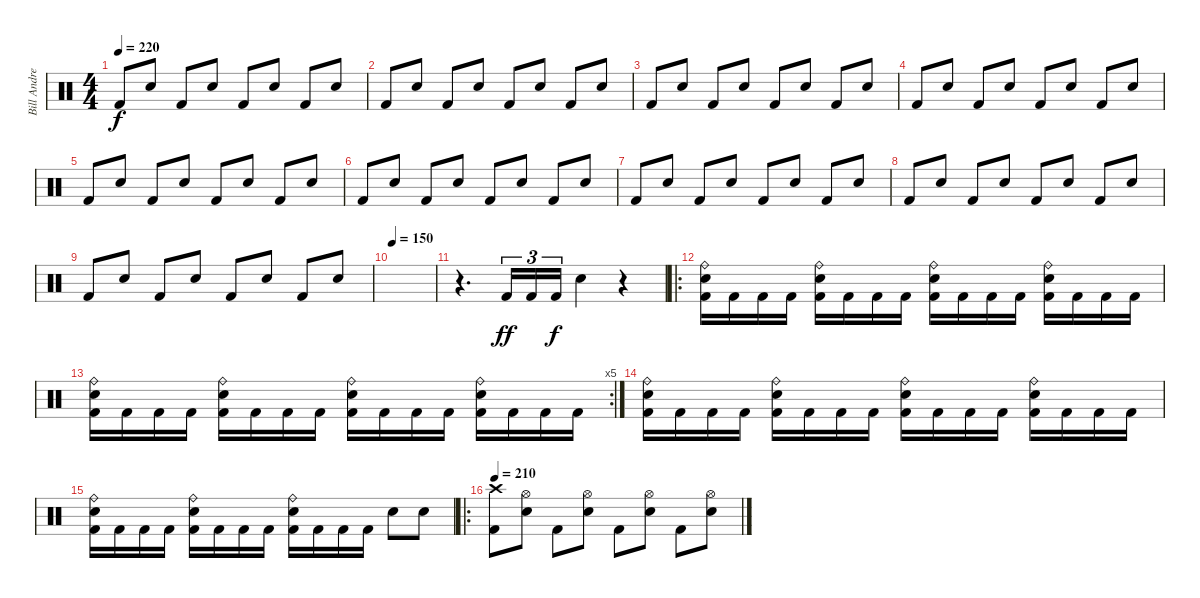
\track ("Bill Andrews" "Bill Andre") {instrument percussion}
\staff {score}
\articulation defaults
\ts (4 4)
\tempo 220
\clef neutral
\ks c "Kick (hit) 2".8{dy f} "Snare (hit) 2".8 "Kick (hit) 2".8 "Snare (hit) 2".8 "Kick (hit) 2".8 "Snare (hit) 2".8 "Kick (hit) 2".8 "Snare (hit) 2".8
|
"Kick (hit) 2".8 "Snare (hit) 2".8 "Kick (hit) 2".8 "Snare (hit) 2".8 "Kick (hit) 2".8 "Snare (hit) 2".8 "Kick (hit) 2".8 "Snare (hit) 2".8 |
"Kick (hit) 2".8 "Snare (hit) 2".8 "Kick (hit) 2".8 "Snare (hit) 2".8 "Kick (hit) 2".8 "Snare (hit) 2".8 "Kick (hit) 2".8 "Snare (hit) 2".8 |
"Kick (hit) 2".8 "Snare (hit) 2".8 "Kick (hit) 2".8 "Snare (hit) 2".8 "Kick (hit) 2".8 "Snare (hit) 2".8 "Kick (hit) 2".8 "Snare (hit) 2".8 |
"Kick (hit) 2".8 "Snare (hit) 2".8 "Kick (hit) 2".8 "Snare (hit) 2".8 "Kick (hit) 2".8 "Snare (hit) 2".8 "Kick (hit) 2".8 "Snare (hit) 2".8 |
"Kick (hit) 2".8 "Snare (hit) 2".8 "Kick (hit) 2".8 "Snare (hit) 2".8 "Kick (hit) 2".8 "Snare (hit) 2".8 "Kick (hit) 2".8 "Snare (hit) 2".8 |
"Kick (hit) 2".8 "Snare (hit) 2".8 "Kick (hit) 2".8 "Snare (hit) 2".8 "Kick (hit) 2".8 "Snare (hit) 2".8 "Kick (hit) 2".8 "Snare (hit) 2".8 |
"Kick (hit) 2".8 "Snare (hit) 2".8 "Kick (hit) 2".8 "Snare (hit) 2".8 "Kick (hit) 2".8 "Snare (hit) 2".8 "Kick (hit) 2".8 "Snare (hit) 2".8 |
"Kick (hit) 2".8 "Snare (hit) 2".8 "Kick (hit) 2".8 "Snare (hit) 2".8 "Kick (hit) 2".8 "Snare (hit) 2".8 "Kick (hit) 2".8 "Snare (hit) 2".8 |
\tempo 150
|
r.4{d} "Kick (hit) 2".16{tu (3 2) dy ff} "Kick (hit) 2".16{tu (3 2)} "Kick (hit) 2".16{tu (3 2) dy f} "Snare (hit) 2".4 r.4 |
\ro
("Ride (bell)" "Snare (hit) 2" "Kick (hit) 2").16 "Kick (hit) 2".16 "Kick (hit) 2".16 "Kick (hit) 2".16 ("Ride (bell)" "Snare (hit) 2" "Kick (hit) 2").16 "Kick (hit) 2".16 "Kick (hit) 2".16 "Kick (hit) 2".16 ("Ride (bell)" "Snare (hit) 2" "Kick (hit) 2").16 "Kick (hit) 2".16 "Kick (hit) 2".16 "Kick (hit) 2".16 ("Ride (bell)" "Snare (hit) 2" "Kick (hit) 2").16 "Kick (hit) 2".16 "Kick (hit) 2".16 "Kick (hit) 2".16 |
\rc 5
("Ride (bell)" "Snare (hit) 2" "Kick (hit) 2").16 "Kick (hit) 2".16 "Kick (hit) 2".16 "Kick (hit) 2".16 ("Ride (bell)" "Snare (hit) 2" "Kick (hit) 2").16 "Kick (hit) 2".16 "Kick (hit) 2".16 "Kick (hit) 2".16 ("Ride (bell)" "Snare (hit) 2" "Kick (hit) 2").16 "Kick (hit) 2".16 "Kick (hit) 2".16 "Kick (hit) 2".16 ("Ride (bell)" "Snare (hit) 2" "Kick (hit) 2").16 "Kick (hit) 2".16 "Kick (hit) 2".16 "Kick (hit) 2".16 |
("Ride (bell)" "Snare (hit) 2" "Kick (hit) 2").16 "Kick (hit) 2".16 "Kick (hit) 2".16 "Kick (hit) 2".16 ("Ride (bell)" "Snare (hit) 2" "Kick (hit) 2").16 "Kick (hit) 2".16 "Kick (hit) 2".16 "Kick (hit) 2".16 ("Ride (bell)" "Snare (hit) 2" "Kick (hit) 2").16 "Kick (hit) 2".16 "Kick (hit) 2".16 "Kick (hit) 2".16 ("Ride (bell)" "Snare (hit) 2" "Kick (hit) 2").16 "Kick (hit) 2".16 "Kick (hit) 2".16 "Kick (hit) 2".16 |
("Ride (bell)" "Snare (hit) 2" "Kick (hit) 2").16 "Kick (hit) 2".16 "Kick (hit) 2".16 "Kick (hit) 2".16 ("Ride (bell)" "Snare (hit) 2" "Kick (hit) 2").16 "Kick (hit) 2".16 "Kick (hit) 2".16 "Kick (hit) 2".16 ("Ride (bell)" "Snare (hit) 2" "Kick (hit) 2").16 "Kick (hit) 2".16 "Kick (hit) 2".16 "Kick (hit) 2".16 "Snare (hit) 2".8 "Snare (hit) 2".8 |
\ro
\tempo 210
("Crash high (hit)" "Kick (hit) 2").8 ("Hi-Hat (open)" "Snare (hit) 2").8 "Kick (hit) 2".8 ("Hi-Hat (open)" "Snare (hit) 2").8 "Kick (hit) 2".8 ("Hi-Hat (open)" "Snare (hit) 2").8 "Kick (hit) 2".8 ("Hi-Hat (open)" "Snare (hit) 2").8
